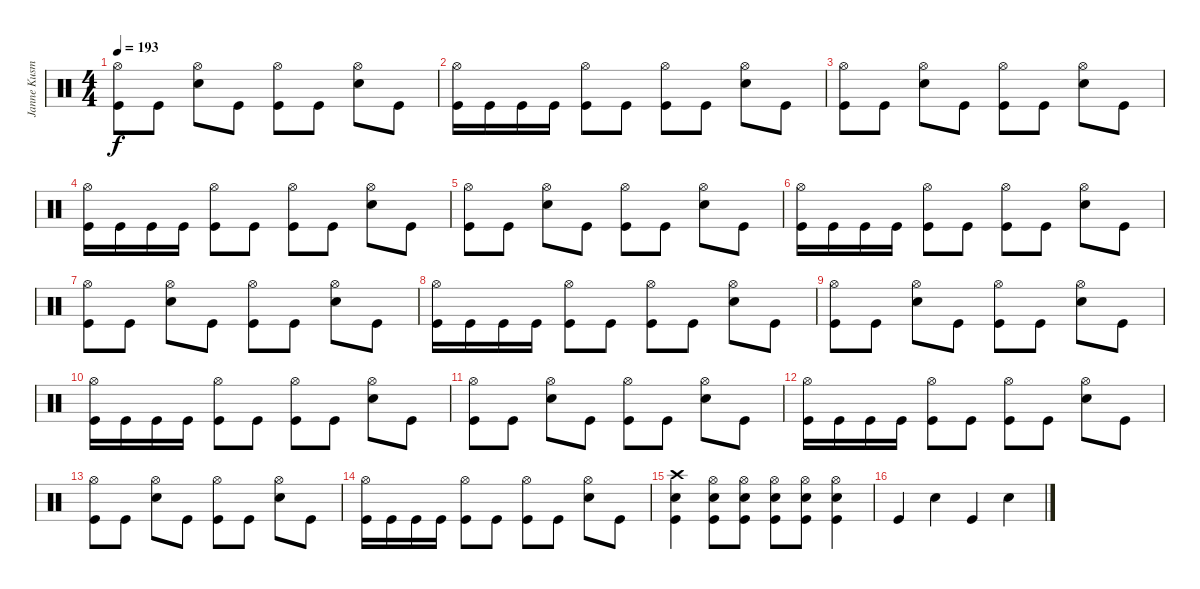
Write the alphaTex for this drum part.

\track ("Janne Kusmin " "Janne Kusm") {instrument percussion}
\staff {score}
\articulation defaults
\ts (4 4)
\tempo 193
\clef neutral
\ks c
("Hi-Hat (open)" "Kick (hit)").8{dy f} "Kick (hit)".8 ("Hi-Hat (open)" "Snare (hit) 2").8 "Kick (hit)".8 ("Hi-Hat (open)" "Kick (hit)").8 "Kick (hit)".8 ("Hi-Hat (open)" "Snare (hit) 2").8 "Kick (hit)".8 |
("Hi-Hat (open)" "Kick (hit)").16 "Kick (hit)".16 "Kick (hit)".16 "Kick (hit)".16 ("Hi-Hat (open)" "Kick (hit)").8 "Kick (hit)".8 ("Hi-Hat (open)" "Kick (hit)").8 "Kick (hit)".8 ("Hi-Hat (open)" "Snare (hit) 2").8 "Kick (hit)".8 |
("Hi-Hat (open)" "Kick (hit)").8 "Kick (hit)".8 ("Hi-Hat (open)" "Snare (hit) 2").8 "Kick (hit)".8 ("Hi-Hat (open)" "Kick (hit)").8 "Kick (hit)".8 ("Hi-Hat (open)" "Snare (hit) 2").8 "Kick (hit)".8 |
("Hi-Hat (open)" "Kick (hit)").16 "Kick (hit)".16 "Kick (hit)".16 "Kick (hit)".16 ("Hi-Hat (open)" "Kick (hit)").8 "Kick (hit)".8 ("Hi-Hat (open)" "Kick (hit)").8 "Kick (hit)".8 ("Hi-Hat (open)" "Snare (hit) 2").8 "Kick (hit)".8 |
("Hi-Hat (open)" "Kick (hit)").8 "Kick (hit)".8 ("Hi-Hat (open)" "Snare (hit) 2").8 "Kick (hit)".8 ("Hi-Hat (open)" "Kick (hit)").8 "Kick (hit)".8 ("Hi-Hat (open)" "Snare (hit) 2").8 "Kick (hit)".8 |
("Hi-Hat (open)" "Kick (hit)").16 "Kick (hit)".16 "Kick (hit)".16 "Kick (hit)".16 ("Hi-Hat (open)" "Kick (hit)").8 "Kick (hit)".8 ("Hi-Hat (open)" "Kick (hit)").8 "Kick (hit)".8 ("Hi-Hat (open)" "Snare (hit) 2").8 "Kick (hit)".8 |
("Hi-Hat (open)" "Kick (hit)").8 "Kick (hit)".8 ("Hi-Hat (open)" "Snare (hit) 2").8 "Kick (hit)".8 ("Hi-Hat (open)" "Kick (hit)").8 "Kick (hit)".8 ("Hi-Hat (open)" "Snare (hit) 2").8 "Kick (hit)".8 |
("Hi-Hat (open)" "Kick (hit)").16 "Kick (hit)".16 "Kick (hit)".16 "Kick (hit)".16 ("Hi-Hat (open)" "Kick (hit)").8 "Kick (hit)".8 ("Hi-Hat (open)" "Kick (hit)").8 "Kick (hit)".8 ("Hi-Hat (open)" "Snare (hit) 2").8 "Kick (hit)".8 |
("Hi-Hat (open)" "Kick (hit)").8 "Kick (hit)".8 ("Hi-Hat (open)" "Snare (hit) 2").8 "Kick (hit)".8 ("Hi-Hat (open)" "Kick (hit)").8 "Kick (hit)".8 ("Hi-Hat (open)" "Snare (hit) 2").8 "Kick (hit)".8 |
("Hi-Hat (open)" "Kick (hit)").16 "Kick (hit)".16 "Kick (hit)".16 "Kick (hit)".16 ("Hi-Hat (open)" "Kick (hit)").8 "Kick (hit)".8 ("Hi-Hat (open)" "Kick (hit)").8 "Kick (hit)".8 ("Hi-Hat (open)" "Snare (hit) 2").8 "Kick (hit)".8 |
("Hi-Hat (open)" "Kick (hit)").8 "Kick (hit)".8 ("Hi-Hat (open)" "Snare (hit) 2").8 "Kick (hit)".8 ("Hi-Hat (open)" "Kick (hit)").8 "Kick (hit)".8 ("Hi-Hat (open)" "Snare (hit) 2").8 "Kick (hit)".8 |
("Hi-Hat (open)" "Kick (hit)").16 "Kick (hit)".16 "Kick (hit)".16 "Kick (hit)".16 ("Hi-Hat (open)" "Kick (hit)").8 "Kick (hit)".8 ("Hi-Hat (open)" "Kick (hit)").8 "Kick (hit)".8 ("Hi-Hat (open)" "Snare (hit) 2").8 "Kick (hit)".8 |
("Hi-Hat (open)" "Kick (hit)").8 "Kick (hit)".8 ("Hi-Hat (open)" "Snare (hit) 2").8 "Kick (hit)".8 ("Hi-Hat (open)" "Kick (hit)").8 "Kick (hit)".8 ("Hi-Hat (open)" "Snare (hit) 2").8 "Kick (hit)".8 |
("Hi-Hat (open)" "Kick (hit)").16 "Kick (hit)".16 "Kick (hit)".16 "Kick (hit)".16 ("Hi-Hat (open)" "Kick (hit)").8 "Kick (hit)".8 ("Hi-Hat (open)" "Kick (hit)").8 "Kick (hit)".8 ("Hi-Hat (open)" "Snare (hit) 2").8 "Kick (hit)".8 |
("Crash high (hit)" "Snare (hit) 2" "Kick (hit)").4 ("Hi-Hat (open)" "Snare (hit) 2" "Kick (hit)").8 ("Hi-Hat (open)" "Snare (hit) 2" "Kick (hit)").8 ("Hi-Hat (open)" "Snare (hit) 2" "Kick (hit)").8 ("Hi-Hat (open)" "Snare (hit) 2" "Kick (hit)").8 ("Hi-Hat (open)" "Snare (hit) 2" "Kick (hit)").4 |
"Kick (hit)".4 "Snare (hit) 2".4 "Kick (hit)".4 "Snare (hit) 2".4
